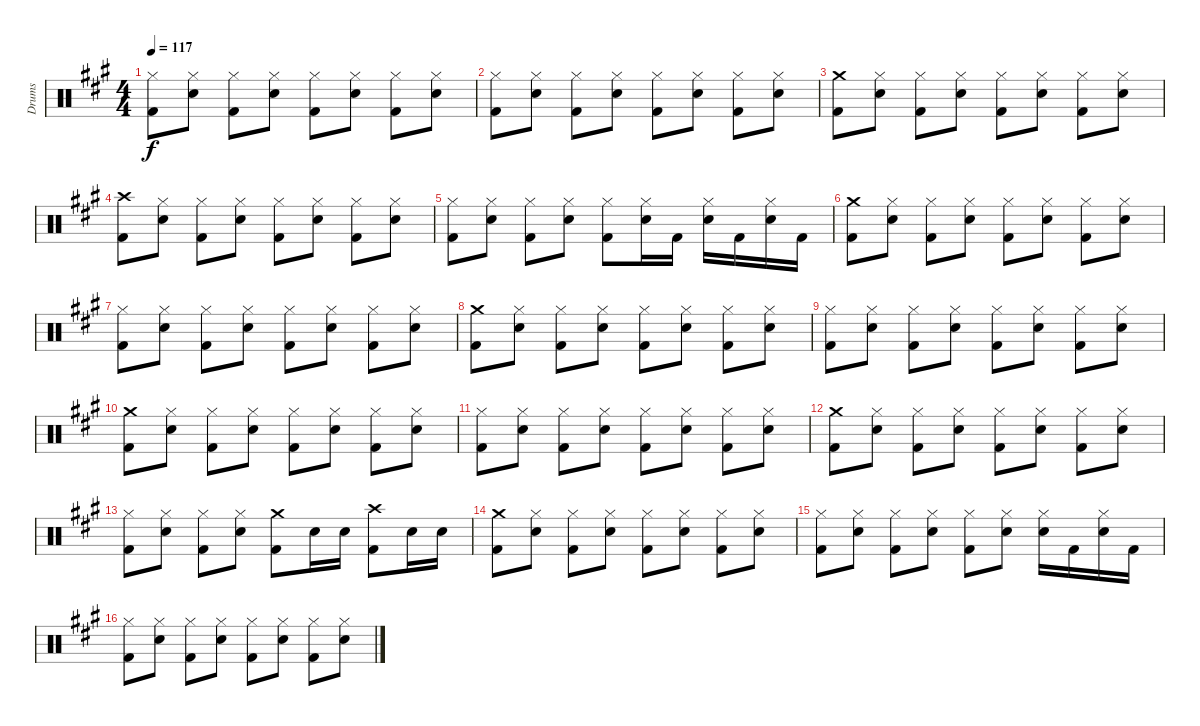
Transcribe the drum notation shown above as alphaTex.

\track ("Drums" "Drums") {instrument percussion}
\staff {score}
\articulation defaults
\ts (4 4)
\tempo 117
\clef neutral
\ks a
("Hi-Hat (closed)" "Kick (hit) 2").8{dy f} ("Hi-Hat (closed)" "Snare (hit) 2").8 ("Hi-Hat (closed)" "Kick (hit) 2").8 ("Hi-Hat (closed)" "Snare (hit) 2").8 ("Hi-Hat (closed)" "Kick (hit) 2").8 ("Hi-Hat (closed)" "Snare (hit) 2").8 ("Hi-Hat (closed)" "Kick (hit) 2").8 ("Hi-Hat (closed)" "Snare (hit) 2").8 |
("Hi-Hat (closed)" "Kick (hit) 2").8 ("Hi-Hat (closed)" "Snare (hit) 2").8 ("Hi-Hat (closed)" "Kick (hit) 2").8 ("Hi-Hat (closed)" "Snare (hit) 2").8 ("Hi-Hat (closed)" "Kick (hit) 2").8 ("Hi-Hat (closed)" "Snare (hit) 2").8 ("Hi-Hat (closed)" "Kick (hit) 2").8 ("Hi-Hat (closed)" "Snare (hit) 2").8 |
("Crash medium (hit)" "Kick (hit) 2").8 ("Hi-Hat (closed)" "Snare (hit) 2").8 ("Hi-Hat (closed)" "Kick (hit) 2").8 ("Hi-Hat (closed)" "Snare (hit) 2").8 ("Hi-Hat (closed)" "Kick (hit) 2").8 ("Hi-Hat (closed)" "Snare (hit) 2").8 ("Hi-Hat (closed)" "Kick (hit) 2").8 ("Hi-Hat (closed)" "Snare (hit) 2").8 |
("Crash high (hit)" "Kick (hit) 2").8 ("Hi-Hat (closed)" "Snare (hit) 2").8 ("Hi-Hat (closed)" "Kick (hit) 2").8 ("Hi-Hat (closed)" "Snare (hit) 2").8 ("Hi-Hat (closed)" "Kick (hit) 2").8 ("Hi-Hat (closed)" "Snare (hit) 2").8 ("Hi-Hat (closed)" "Kick (hit) 2").8 ("Hi-Hat (closed)" "Snare (hit) 2").8 |
("Hi-Hat (closed)" "Kick (hit) 2").8 ("Hi-Hat (closed)" "Snare (hit) 2").8 ("Hi-Hat (closed)" "Kick (hit) 2").8 ("Hi-Hat (closed)" "Snare (hit) 2").8 ("Hi-Hat (closed)" "Kick (hit) 2").8 ("Hi-Hat (closed)" "Snare (hit) 2").16 "Kick (hit) 2".16 ("Hi-Hat (closed)" "Snare (hit) 2").16 "Kick (hit) 2".16 ("Hi-Hat (closed)" "Snare (hit) 2").16 "Kick (hit) 2".16 |
("Crash medium (hit)" "Kick (hit) 2").8 ("Hi-Hat (closed)" "Snare (hit) 2").8 ("Hi-Hat (closed)" "Kick (hit) 2").8 ("Hi-Hat (closed)" "Snare (hit) 2").8 ("Hi-Hat (closed)" "Kick (hit) 2").8 ("Hi-Hat (closed)" "Snare (hit) 2").8 ("Hi-Hat (closed)" "Kick (hit) 2").8 ("Hi-Hat (closed)" "Snare (hit) 2").8 |
("Hi-Hat (closed)" "Kick (hit) 2").8 ("Hi-Hat (closed)" "Snare (hit) 2").8 ("Hi-Hat (closed)" "Kick (hit) 2").8 ("Hi-Hat (closed)" "Snare (hit) 2").8 ("Hi-Hat (closed)" "Kick (hit) 2").8 ("Hi-Hat (closed)" "Snare (hit) 2").8 ("Hi-Hat (closed)" "Kick (hit) 2").8 ("Hi-Hat (closed)" "Snare (hit) 2").8 |
("Crash medium (hit)" "Kick (hit) 2").8 ("Hi-Hat (closed)" "Snare (hit) 2").8 ("Hi-Hat (closed)" "Kick (hit) 2").8 ("Hi-Hat (closed)" "Snare (hit) 2").8 ("Hi-Hat (closed)" "Kick (hit) 2").8 ("Hi-Hat (closed)" "Snare (hit) 2").8 ("Hi-Hat (closed)" "Kick (hit) 2").8 ("Hi-Hat (closed)" "Snare (hit) 2").8 |
("Hi-Hat (closed)" "Kick (hit) 2").8 ("Hi-Hat (closed)" "Snare (hit) 2").8 ("Hi-Hat (closed)" "Kick (hit) 2").8 ("Hi-Hat (closed)" "Snare (hit) 2").8 ("Hi-Hat (closed)" "Kick (hit) 2").8 ("Hi-Hat (closed)" "Snare (hit) 2").8 ("Hi-Hat (closed)" "Kick (hit) 2").8 ("Hi-Hat (closed)" "Snare (hit) 2").8 |
("Crash medium (hit)" "Kick (hit) 2").8 ("Hi-Hat (closed)" "Snare (hit) 2").8 ("Hi-Hat (closed)" "Kick (hit) 2").8 ("Hi-Hat (closed)" "Snare (hit) 2").8 ("Hi-Hat (closed)" "Kick (hit) 2").8 ("Hi-Hat (closed)" "Snare (hit) 2").8 ("Hi-Hat (closed)" "Kick (hit) 2").8 ("Hi-Hat (closed)" "Snare (hit) 2").8 |
("Hi-Hat (closed)" "Kick (hit) 2").8 ("Hi-Hat (closed)" "Snare (hit) 2").8 ("Hi-Hat (closed)" "Kick (hit) 2").8 ("Hi-Hat (closed)" "Snare (hit) 2").8 ("Hi-Hat (closed)" "Kick (hit) 2").8 ("Hi-Hat (closed)" "Snare (hit) 2").8 ("Hi-Hat (closed)" "Kick (hit) 2").8 ("Hi-Hat (closed)" "Snare (hit) 2").8 |
("Crash medium (hit)" "Kick (hit) 2").8 ("Hi-Hat (closed)" "Snare (hit) 2").8 ("Hi-Hat (closed)" "Kick (hit) 2").8 ("Hi-Hat (closed)" "Snare (hit) 2").8 ("Hi-Hat (closed)" "Kick (hit) 2").8 ("Hi-Hat (closed)" "Snare (hit) 2").8 ("Hi-Hat (closed)" "Kick (hit) 2").8 ("Hi-Hat (closed)" "Snare (hit) 2").8 |
("Hi-Hat (closed)" "Kick (hit) 2").8 ("Hi-Hat (closed)" "Snare (hit) 2").8 ("Hi-Hat (closed)" "Kick (hit) 2").8 ("Hi-Hat (closed)" "Snare (hit) 2").8 ("Crash medium (hit)" "Kick (hit) 2").8 "Snare (hit) 2".16 "Snare (hit) 2".16 ("Crash high (hit)" "Kick (hit) 2").8 "Snare (hit) 2".16 "Snare (hit) 2".16 |
("Crash medium (hit)" "Kick (hit) 2").8 ("Hi-Hat (closed)" "Snare (hit) 2").8 ("Hi-Hat (closed)" "Kick (hit) 2").8 ("Hi-Hat (closed)" "Snare (hit) 2").8 ("Hi-Hat (closed)" "Kick (hit) 2").8 ("Hi-Hat (closed)" "Snare (hit) 2").8 ("Hi-Hat (closed)" "Kick (hit) 2").8 ("Hi-Hat (closed)" "Snare (hit) 2").8 |
("Hi-Hat (closed)" "Kick (hit) 2").8 ("Hi-Hat (closed)" "Snare (hit) 2").8 ("Hi-Hat (closed)" "Kick (hit) 2").8 ("Hi-Hat (closed)" "Snare (hit) 2").8 ("Hi-Hat (closed)" "Kick (hit) 2").8 ("Hi-Hat (closed)" "Snare (hit) 2").8 ("Hi-Hat (closed)" "Snare (hit) 2").16 "Kick (hit) 2".16 ("Hi-Hat (closed)" "Snare (hit) 2").16 "Kick (hit) 2".16 |
("Hi-Hat (closed)" "Kick (hit) 2").8 ("Hi-Hat (closed)" "Snare (hit) 2").8 ("Hi-Hat (closed)" "Kick (hit) 2").8 ("Hi-Hat (closed)" "Snare (hit) 2").8 ("Hi-Hat (closed)" "Kick (hit) 2").8 ("Hi-Hat (closed)" "Snare (hit) 2").8 ("Hi-Hat (closed)" "Kick (hit) 2").8 ("Hi-Hat (closed)" "Snare (hit) 2").8
